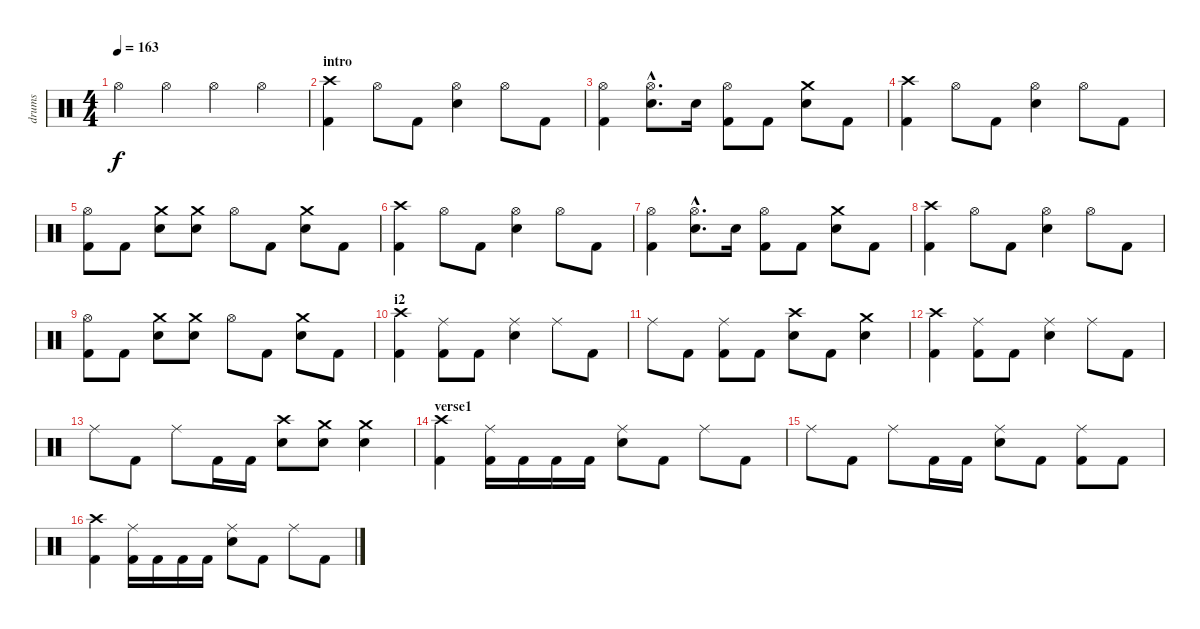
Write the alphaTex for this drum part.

\track ("drums" "drums") {instrument percussion}
\staff {score}
\articulation defaults
\ts (4 4)
\tempo 163
\clef neutral
\ks c "Hi-Hat (open)".4{dy f} "Hi-Hat (open)".4 "Hi-Hat (open)".4 "Hi-Hat (open)".4
|
\section ("" "intro")
("Crash high (hit)" "Kick (hit) 2").4 "Hi-Hat (open)".8 "Kick (hit) 2".8 ("Hi-Hat (open)" "Electric Snare (hit)").4 "Hi-Hat (open)".8 "Kick (hit) 2".8 |
("Hi-Hat (open)" "Kick (hit) 2").4 ("Hi-Hat (open)"{hac} "Electric Snare (hit)"{hac}).8{d} "Electric Snare (hit)".16 ("Hi-Hat (open)" "Kick (hit) 2").8 "Kick (hit) 2".8 ("Crash medium (hit)" "Electric Snare (hit)").8 "Kick (hit) 2".8 |
("Crash high (hit)" "Kick (hit) 2").4 "Hi-Hat (open)".8 "Kick (hit) 2".8 ("Hi-Hat (open)" "Electric Snare (hit)").4 "Hi-Hat (open)".8 "Kick (hit) 2".8 |
("Hi-Hat (open)" "Kick (hit) 2").8 "Kick (hit) 2".8 ("Crash medium (hit)" "Electric Snare (hit)").8 ("Crash medium (hit)" "Electric Snare (hit)").8 "Hi-Hat (open)".8 "Kick (hit) 2".8 ("Crash medium (hit)" "Electric Snare (hit)").8 "Kick (hit) 2".8 |
("Crash high (hit)" "Kick (hit) 2").4 "Hi-Hat (open)".8 "Kick (hit) 2".8 ("Hi-Hat (open)" "Electric Snare (hit)").4 "Hi-Hat (open)".8 "Kick (hit) 2".8 |
("Hi-Hat (open)" "Kick (hit) 2").4 ("Hi-Hat (open)"{hac} "Electric Snare (hit)"{hac}).8{d} "Electric Snare (hit)".16 ("Hi-Hat (open)" "Kick (hit) 2").8 "Kick (hit) 2".8 ("Crash medium (hit)" "Electric Snare (hit)").8 "Kick (hit) 2".8 |
("Crash high (hit)" "Kick (hit) 2").4 "Hi-Hat (open)".8 "Kick (hit) 2".8 ("Hi-Hat (open)" "Electric Snare (hit)").4 "Hi-Hat (open)".8 "Kick (hit) 2".8 |
("Hi-Hat (open)" "Kick (hit) 2").8 "Kick (hit) 2".8 ("Crash medium (hit)" "Electric Snare (hit)").8 ("Crash medium (hit)" "Electric Snare (hit)").8 "Hi-Hat (open)".8 "Kick (hit) 2".8 ("Crash medium (hit)" "Electric Snare (hit)").8 "Kick (hit) 2".8 |
\section ("" "i2")
("Crash high (hit)" "Kick (hit) 2").4 ("Ride (middle)" "Kick (hit) 2").8 "Kick (hit) 2".8 ("Ride (middle)" "Electric Snare (hit)").4 "Ride (middle)".8 "Kick (hit) 2".8 |
"Ride (middle)".8 "Kick (hit) 2".8 ("Ride (middle)" "Kick (hit) 2").8 "Kick (hit) 2".8 ("Crash high (hit)" "Electric Snare (hit)").8 "Kick (hit) 2".8 ("Crash medium (hit)" "Electric Snare (hit)").4 |
("Crash high (hit)" "Kick (hit) 2").4 ("Ride (middle)" "Kick (hit) 2").8 "Kick (hit) 2".8 ("Ride (middle)" "Electric Snare (hit)").4 "Ride (middle)".8 "Kick (hit) 2".8 |
"Ride (middle)".8 "Kick (hit) 2".8 "Ride (middle)".8 "Kick (hit) 2".16 "Kick (hit) 2".16 ("Crash high (hit)" "Electric Snare (hit)").8 ("Crash medium (hit)" "Electric Snare (hit)").8 ("Crash medium (hit)" "Electric Snare (hit)").4 |
\section ("" "verse1")
("Crash high (hit)" "Kick (hit) 2").4 ("Ride (middle)" "Kick (hit) 2").16 "Kick (hit) 2".16 "Kick (hit) 2".16 "Kick (hit) 2".16 ("Ride (middle)" "Electric Snare (hit)").8 "Kick (hit) 2".8 "Ride (middle)".8 "Kick (hit) 2".8 |
"Ride (middle)".8 "Kick (hit) 2".8 "Ride (middle)".8 "Kick (hit) 2".16 "Kick (hit) 2".16 ("Ride (middle)" "Electric Snare (hit)").8 "Kick (hit) 2".8 ("Ride (middle)" "Kick (hit) 2").8 "Kick (hit) 2".8 |
("Crash high (hit)" "Kick (hit) 2").4 ("Ride (middle)" "Kick (hit) 2").16 "Kick (hit) 2".16 "Kick (hit) 2".16 "Kick (hit) 2".16 ("Ride (middle)" "Electric Snare (hit)").8 "Kick (hit) 2".8 "Ride (middle)".8 "Kick (hit) 2".8
